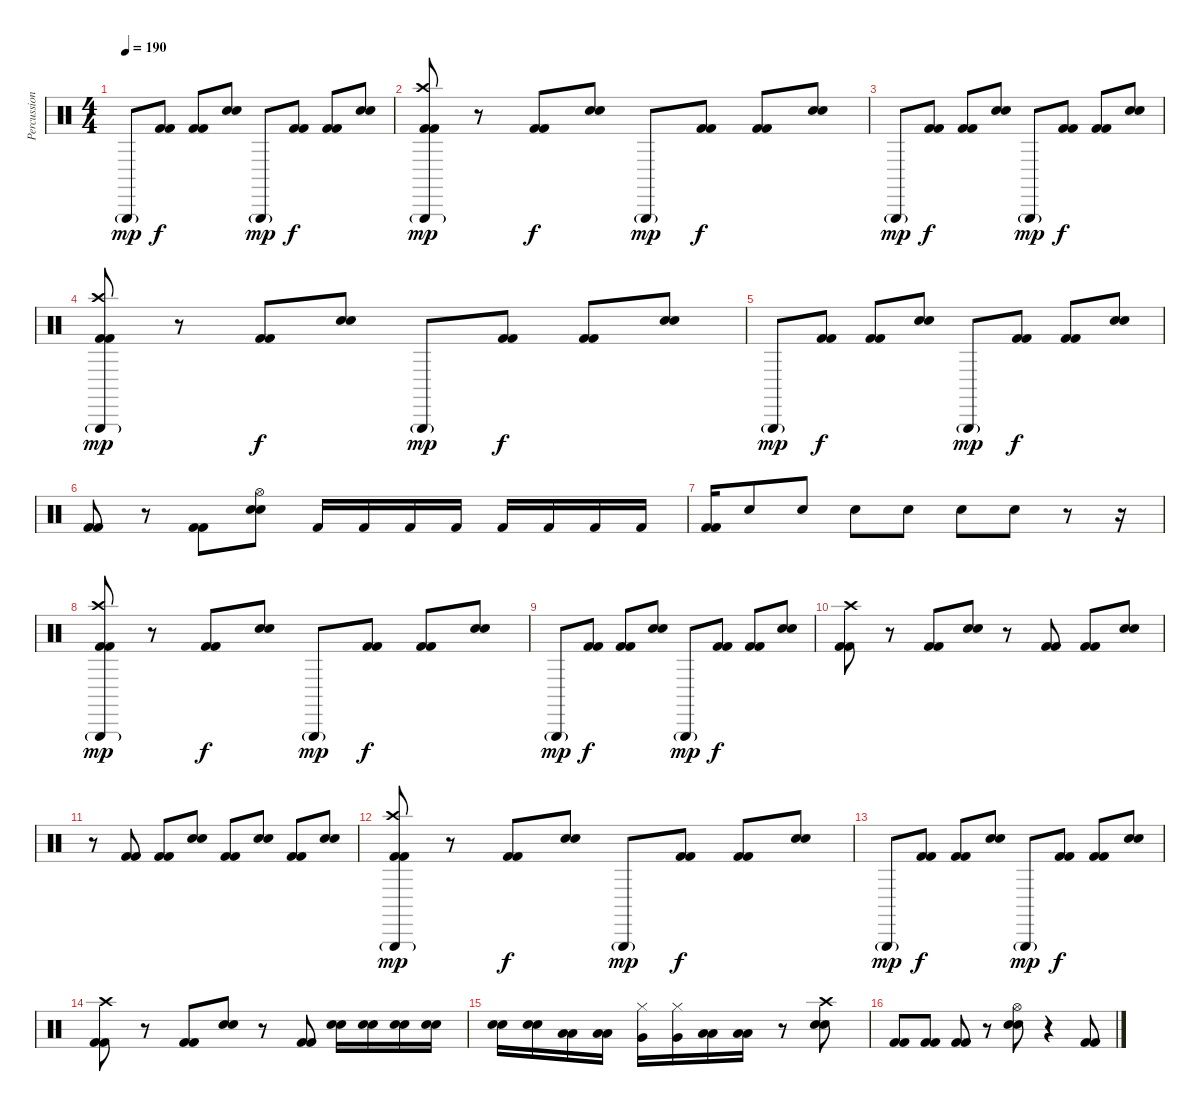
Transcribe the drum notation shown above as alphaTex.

\track ("Percussions" "Percussion") {instrument percussion}
\staff {score}
\articulation defaults
\ts (4 4)
\tempo 190
\clef neutral
\ks c "Triangle (hit)"{g}.8{dy mp}
("Kick (hit) 2" "Kick (hit) 2").8{dy f} ("Kick (hit) 2" "Kick (hit) 2").8 ("Snare (hit) 2" "Snare (hit) 2").8 "Triangle (hit)"{g}.8{dy mp} ("Kick (hit) 2" "Kick (hit) 2").8{dy f} ("Kick (hit) 2" "Kick (hit) 2").8 ("Snare (hit) 2" "Snare (hit) 2").8 |
("Kick (hit) 2" "Kick (hit) 2" "Crash high (hit)" "Triangle (hit)"{g}).8{dy mp} r.8 ("Kick (hit) 2" "Kick (hit) 2").8{dy f} ("Snare (hit) 2" "Snare (hit) 2").8 "Triangle (hit)"{g}.8{dy mp} ("Kick (hit) 2" "Kick (hit) 2").8{dy f} ("Kick (hit) 2" "Kick (hit) 2").8 ("Snare (hit) 2" "Snare (hit) 2").8 |
"Triangle (hit)"{g}.8{dy mp} ("Kick (hit) 2" "Kick (hit) 2").8{dy f} ("Kick (hit) 2" "Kick (hit) 2").8 ("Snare (hit) 2" "Snare (hit) 2").8 "Triangle (hit)"{g}.8{dy mp} ("Kick (hit) 2" "Kick (hit) 2").8{dy f} ("Kick (hit) 2" "Kick (hit) 2").8 ("Snare (hit) 2" "Snare (hit) 2").8 |
("Kick (hit) 2" "Kick (hit) 2" "Crash high (hit)" "Triangle (hit)"{g}).8{dy mp} r.8 ("Kick (hit) 2" "Kick (hit) 2").8{dy f} ("Snare (hit) 2" "Snare (hit) 2").8 "Triangle (hit)"{g}.8{dy mp} ("Kick (hit) 2" "Kick (hit) 2").8{dy f} ("Kick (hit) 2" "Kick (hit) 2").8 ("Snare (hit) 2" "Snare (hit) 2").8 |
"Triangle (hit)"{g}.8{dy mp} ("Kick (hit) 2" "Kick (hit) 2").8{dy f} ("Kick (hit) 2" "Kick (hit) 2").8 ("Snare (hit) 2" "Snare (hit) 2").8 "Triangle (hit)"{g}.8{dy mp} ("Kick (hit) 2" "Kick (hit) 2").8{dy f} ("Kick (hit) 2" "Kick (hit) 2").8 ("Snare (hit) 2" "Snare (hit) 2").8 |
("Kick (hit) 2" "Kick (hit) 2").8 r.8 ("Kick (hit) 2" "Kick (hit) 2").8 ("Snare (hit) 2" "Snare (hit) 2" "Hi-Hat (open)").8 "Kick (hit) 2".16 "Kick (hit) 2".16 "Kick (hit) 2".16 "Kick (hit) 2".16 "Kick (hit) 2".16 "Kick (hit) 2".16 "Kick (hit) 2".16 "Kick (hit) 2".16 |
("Kick (hit) 2" "Kick (hit) 2").16 "Snare (hit) 2".8 "Snare (hit) 2".8 "Snare (hit) 2".8 "Snare (hit) 2".8 "Snare (hit) 2".8 "Snare (hit) 2".8 r.8 r.16 |
("Kick (hit) 2" "Kick (hit) 2" "Crash high (hit)" "Triangle (hit)"{g}).8{dy mp} r.8 ("Kick (hit) 2" "Kick (hit) 2").8{dy f} ("Snare (hit) 2" "Snare (hit) 2").8 "Triangle (hit)"{g}.8{dy mp} ("Kick (hit) 2" "Kick (hit) 2").8{dy f} ("Kick (hit) 2" "Kick (hit) 2").8 ("Snare (hit) 2" "Snare (hit) 2").8 |
"Triangle (hit)"{g}.8{dy mp} ("Kick (hit) 2" "Kick (hit) 2").8{dy f} ("Kick (hit) 2" "Kick (hit) 2").8 ("Snare (hit) 2" "Snare (hit) 2").8 "Triangle (hit)"{g}.8{dy mp} ("Kick (hit) 2" "Kick (hit) 2").8{dy f} ("Kick (hit) 2" "Kick (hit) 2").8 ("Snare (hit) 2" "Snare (hit) 2").8 |
("Kick (hit) 2" "Kick (hit) 2" "Crash high (hit)").8 r.8 ("Kick (hit) 2" "Kick (hit) 2").8 ("Snare (hit) 2" "Snare (hit) 2").8 r.8 ("Kick (hit) 2" "Kick (hit) 2").8 ("Kick (hit) 2" "Kick (hit) 2").8 ("Snare (hit) 2" "Snare (hit) 2").8 |
r.8 ("Kick (hit) 2" "Kick (hit) 2").8 ("Kick (hit) 2" "Kick (hit) 2").8 ("Snare (hit) 2" "Snare (hit) 2").8 ("Kick (hit) 2" "Kick (hit) 2").8 ("Snare (hit) 2" "Snare (hit) 2").8 ("Kick (hit) 2" "Kick (hit) 2").8 ("Snare (hit) 2" "Snare (hit) 2").8 |
("Kick (hit) 2" "Kick (hit) 2" "Crash high (hit)" "Triangle (hit)"{g}).8{dy mp} r.8 ("Kick (hit) 2" "Kick (hit) 2").8{dy f} ("Snare (hit) 2" "Snare (hit) 2").8 "Triangle (hit)"{g}.8{dy mp} ("Kick (hit) 2" "Kick (hit) 2").8{dy f} ("Kick (hit) 2" "Kick (hit) 2").8 ("Snare (hit) 2" "Snare (hit) 2").8 |
"Triangle (hit)"{g}.8{dy mp} ("Kick (hit) 2" "Kick (hit) 2").8{dy f} ("Kick (hit) 2" "Kick (hit) 2").8 ("Snare (hit) 2" "Snare (hit) 2").8 "Triangle (hit)"{g}.8{dy mp} ("Kick (hit) 2" "Kick (hit) 2").8{dy f} ("Kick (hit) 2" "Kick (hit) 2").8 ("Snare (hit) 2" "Snare (hit) 2").8 |
("Kick (hit) 2" "Kick (hit) 2" "Crash high (hit)").8 r.8 ("Kick (hit) 2" "Kick (hit) 2").8 ("Snare (hit) 2" "Snare (hit) 2").8 r.8 ("Kick (hit) 2" "Kick (hit) 2").8 ("Snare (hit) 2" "Snare (hit) 2").16 ("Snare (hit) 2" "Snare (hit) 2").16 ("Snare (hit) 2" "Snare (hit) 2").16 ("Snare (hit) 2" "Snare (hit) 2").16 |
("Snare (hit) 2" "Snare (hit) 2").16 ("Snare (hit) 2" "Snare (hit) 2").16 ("Low Tom (hit)" "Low Tom (hit)").16 ("Low Tom (hit)" "Low Tom (hit)").16 ("Very Low Tom (hit)" "Hi-Hat (closed)").16 ("Very Low Tom (hit)" "Hi-Hat (closed)").16 ("Low Floor Tom (hit)" "Low Floor Tom (hit)").16 ("Low Floor Tom (hit)" "Low Floor Tom (hit)").16 r.8 ("Snare (hit) 2" "Snare (hit) 2" "Crash high (hit)").8 |
("Kick (hit) 2" "Kick (hit) 2").8 ("Kick (hit) 2" "Kick (hit) 2").8 ("Kick (hit) 2" "Kick (hit) 2").8 r.8 ("Snare (hit) 2" "Snare (hit) 2" "Hi-Hat (open)").8 r.4 ("Kick (hit) 2" "Kick (hit) 2").8
